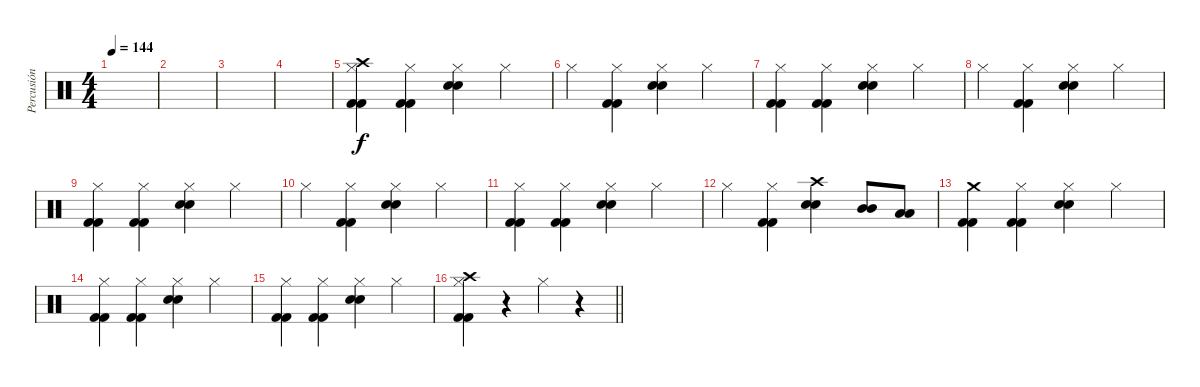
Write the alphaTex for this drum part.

\track ("Percusión" "Percusión") {instrument percussion}
\staff {score}
\articulation defaults
\ts (4 4)
\tempo 144
\clef neutral
\ks c
|
|
|
|
("Crash high (hit)" "Hi-Hat (closed)" "Kick (hit) 2" "Kick (hit) 2").4 ("Hi-Hat (closed)" "Kick (hit) 2" "Kick (hit) 2").4 ("Hi-Hat (closed)" "Electric Snare (hit)" "Electric Snare (hit)").4 "Hi-Hat (closed)".4 |
"Hi-Hat (closed)".4 ("Hi-Hat (closed)" "Kick (hit) 2" "Kick (hit) 2").4 ("Hi-Hat (closed)" "Electric Snare (hit)" "Electric Snare (hit)").4 "Hi-Hat (closed)".4 |
("Hi-Hat (closed)" "Kick (hit) 2" "Kick (hit) 2").4 ("Hi-Hat (closed)" "Kick (hit) 2" "Kick (hit) 2").4 ("Hi-Hat (closed)" "Electric Snare (hit)" "Electric Snare (hit)").4 "Hi-Hat (closed)".4 |
"Hi-Hat (closed)".4 ("Hi-Hat (closed)" "Kick (hit) 2" "Kick (hit) 2").4 ("Hi-Hat (closed)" "Electric Snare (hit)" "Electric Snare (hit)").4 "Hi-Hat (closed)".4 |
("Hi-Hat (closed)" "Kick (hit) 2" "Kick (hit) 2").4 ("Hi-Hat (closed)" "Kick (hit) 2" "Kick (hit) 2").4 ("Hi-Hat (closed)" "Electric Snare (hit)" "Electric Snare (hit)").4 "Hi-Hat (closed)".4 |
"Hi-Hat (closed)".4 ("Hi-Hat (closed)" "Kick (hit) 2" "Kick (hit) 2").4 ("Hi-Hat (closed)" "Electric Snare (hit)" "Electric Snare (hit)").4 "Hi-Hat (closed)".4 |
("Hi-Hat (closed)" "Kick (hit) 2" "Kick (hit) 2").4 ("Hi-Hat (closed)" "Kick (hit) 2" "Kick (hit) 2").4 ("Hi-Hat (closed)" "Electric Snare (hit)" "Electric Snare (hit)").4 "Hi-Hat (closed)".4 |
"Hi-Hat (closed)".4 ("Hi-Hat (closed)" "Kick (hit) 2" "Kick (hit) 2").4 ("Crash high (hit)" "Electric Snare (hit)" "Electric Snare (hit)").4 ("Mid Tom (hit)" "Mid Tom (hit)").8 ("Low Tom (hit)" "Low Tom (hit)").8 |
("Crash medium (hit)" "Kick (hit) 2" "Kick (hit) 2").4 ("Hi-Hat (closed)" "Kick (hit) 2" "Kick (hit) 2").4 ("Hi-Hat (closed)" "Electric Snare (hit)" "Electric Snare (hit)").4 "Hi-Hat (closed)".4 |
("Hi-Hat (closed)" "Kick (hit) 2" "Kick (hit) 2").4 ("Hi-Hat (closed)" "Kick (hit) 2" "Kick (hit) 2").4 ("Hi-Hat (closed)" "Electric Snare (hit)" "Electric Snare (hit)").4 "Hi-Hat (closed)".4 |
("Hi-Hat (closed)" "Kick (hit) 2" "Kick (hit) 2").4 ("Hi-Hat (closed)" "Kick (hit) 2" "Kick (hit) 2").4 ("Hi-Hat (closed)" "Electric Snare (hit)" "Electric Snare (hit)").4 "Hi-Hat (closed)".4 |
\barLineRight lightlight
("Crash high (hit)" "Hi-Hat (closed)" "Kick (hit) 2" "Kick (hit) 2").4 r.4 "Hi-Hat (closed)".4 r.4
